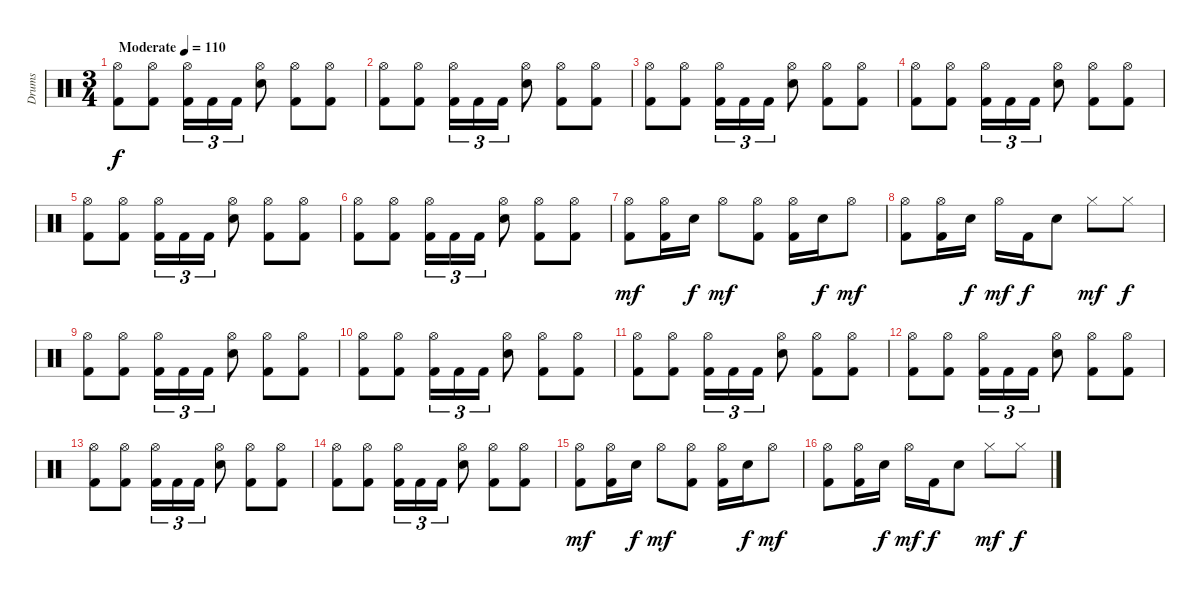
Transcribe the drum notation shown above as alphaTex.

\track ("Drums" "Drums") {instrument percussion}
\staff {score}
\articulation defaults
\ts (3 4)
\tempo (110 "Moderate")
\clef neutral
\ks c
("Hi-Hat (open)" "Kick (hit) 2").8{dy f} ("Hi-Hat (open)" "Kick (hit) 2").8 ("Hi-Hat (open)" "Kick (hit) 2").16{tu (3 2)} "Kick (hit) 2".16{tu (3 2)} "Kick (hit) 2".16{tu (3 2)} ("Hi-Hat (open)" "Snare (hit) 2").8 ("Hi-Hat (open)" "Kick (hit) 2").8 ("Hi-Hat (open)" "Kick (hit) 2").8 |
("Hi-Hat (open)" "Kick (hit) 2").8 ("Hi-Hat (open)" "Kick (hit) 2").8 ("Hi-Hat (open)" "Kick (hit) 2").16{tu (3 2)} "Kick (hit) 2".16{tu (3 2)} "Kick (hit) 2".16{tu (3 2)} ("Hi-Hat (open)" "Snare (hit) 2").8 ("Hi-Hat (open)" "Kick (hit) 2").8 ("Hi-Hat (open)" "Kick (hit) 2").8 |
("Hi-Hat (open)" "Kick (hit) 2").8 ("Hi-Hat (open)" "Kick (hit) 2").8 ("Hi-Hat (open)" "Kick (hit) 2").16{tu (3 2)} "Kick (hit) 2".16{tu (3 2)} "Kick (hit) 2".16{tu (3 2)} ("Hi-Hat (open)" "Snare (hit) 2").8 ("Hi-Hat (open)" "Kick (hit) 2").8 ("Hi-Hat (open)" "Kick (hit) 2").8 |
("Hi-Hat (open)" "Kick (hit) 2").8 ("Hi-Hat (open)" "Kick (hit) 2").8 ("Hi-Hat (open)" "Kick (hit) 2").16{tu (3 2)} "Kick (hit) 2".16{tu (3 2)} "Kick (hit) 2".16{tu (3 2)} ("Hi-Hat (open)" "Snare (hit) 2").8 ("Hi-Hat (open)" "Kick (hit) 2").8 ("Hi-Hat (open)" "Kick (hit) 2").8 |
("Hi-Hat (open)" "Kick (hit) 2").8 ("Hi-Hat (open)" "Kick (hit) 2").8 ("Hi-Hat (open)" "Kick (hit) 2").16{tu (3 2)} "Kick (hit) 2".16{tu (3 2)} "Kick (hit) 2".16{tu (3 2)} ("Hi-Hat (open)" "Snare (hit) 2").8 ("Hi-Hat (open)" "Kick (hit) 2").8 ("Hi-Hat (open)" "Kick (hit) 2").8 |
("Hi-Hat (open)" "Kick (hit) 2").8 ("Hi-Hat (open)" "Kick (hit) 2").8 ("Hi-Hat (open)" "Kick (hit) 2").16{tu (3 2)} "Kick (hit) 2".16{tu (3 2)} "Kick (hit) 2".16{tu (3 2)} ("Hi-Hat (open)" "Snare (hit) 2").8 ("Hi-Hat (open)" "Kick (hit) 2").8 ("Hi-Hat (open)" "Kick (hit) 2").8 |
("Hi-Hat (open)" "Kick (hit) 2").8{dy mf} ("Hi-Hat (open)" "Kick (hit) 2").16 "Snare (hit) 2".16{dy f} "Hi-Hat (open)".8{dy mf} ("Hi-Hat (open)" "Kick (hit) 2").8 ("Hi-Hat (open)" "Kick (hit) 2").16 "Snare (hit) 2".16{dy f} "Hi-Hat (open)".8{dy mf} |
("Hi-Hat (open)" "Kick (hit) 2").8 ("Hi-Hat (open)" "Kick (hit) 2").16 "Snare (hit) 2".16{dy f} "Hi-Hat (open)".16{dy mf} "Kick (hit) 2".16{dy f} "Snare (hit) 2".8 "Hi-Hat (closed)".8{dy mf} "Hi-Hat (closed)".8{dy f} |
("Hi-Hat (open)" "Kick (hit) 2").8 ("Hi-Hat (open)" "Kick (hit) 2").8 ("Hi-Hat (open)" "Kick (hit) 2").16{tu (3 2)} "Kick (hit) 2".16{tu (3 2)} "Kick (hit) 2".16{tu (3 2)} ("Hi-Hat (open)" "Snare (hit) 2").8 ("Hi-Hat (open)" "Kick (hit) 2").8 ("Hi-Hat (open)" "Kick (hit) 2").8 |
("Hi-Hat (open)" "Kick (hit) 2").8 ("Hi-Hat (open)" "Kick (hit) 2").8 ("Hi-Hat (open)" "Kick (hit) 2").16{tu (3 2)} "Kick (hit) 2".16{tu (3 2)} "Kick (hit) 2".16{tu (3 2)} ("Hi-Hat (open)" "Snare (hit) 2").8 ("Hi-Hat (open)" "Kick (hit) 2").8 ("Hi-Hat (open)" "Kick (hit) 2").8 |
("Hi-Hat (open)" "Kick (hit) 2").8 ("Hi-Hat (open)" "Kick (hit) 2").8 ("Hi-Hat (open)" "Kick (hit) 2").16{tu (3 2)} "Kick (hit) 2".16{tu (3 2)} "Kick (hit) 2".16{tu (3 2)} ("Hi-Hat (open)" "Snare (hit) 2").8 ("Hi-Hat (open)" "Kick (hit) 2").8 ("Hi-Hat (open)" "Kick (hit) 2").8 |
("Hi-Hat (open)" "Kick (hit) 2").8 ("Hi-Hat (open)" "Kick (hit) 2").8 ("Hi-Hat (open)" "Kick (hit) 2").16{tu (3 2)} "Kick (hit) 2".16{tu (3 2)} "Kick (hit) 2".16{tu (3 2)} ("Hi-Hat (open)" "Snare (hit) 2").8 ("Hi-Hat (open)" "Kick (hit) 2").8 ("Hi-Hat (open)" "Kick (hit) 2").8 |
("Hi-Hat (open)" "Kick (hit) 2").8 ("Hi-Hat (open)" "Kick (hit) 2").8 ("Hi-Hat (open)" "Kick (hit) 2").16{tu (3 2)} "Kick (hit) 2".16{tu (3 2)} "Kick (hit) 2".16{tu (3 2)} ("Hi-Hat (open)" "Snare (hit) 2").8 ("Hi-Hat (open)" "Kick (hit) 2").8 ("Hi-Hat (open)" "Kick (hit) 2").8 |
("Hi-Hat (open)" "Kick (hit) 2").8 ("Hi-Hat (open)" "Kick (hit) 2").8 ("Hi-Hat (open)" "Kick (hit) 2").16{tu (3 2)} "Kick (hit) 2".16{tu (3 2)} "Kick (hit) 2".16{tu (3 2)} ("Hi-Hat (open)" "Snare (hit) 2").8 ("Hi-Hat (open)" "Kick (hit) 2").8 ("Hi-Hat (open)" "Kick (hit) 2").8 |
("Hi-Hat (open)" "Kick (hit) 2").8{dy mf} ("Hi-Hat (open)" "Kick (hit) 2").16 "Snare (hit) 2".16{dy f} "Hi-Hat (open)".8{dy mf} ("Hi-Hat (open)" "Kick (hit) 2").8 ("Hi-Hat (open)" "Kick (hit) 2").16 "Snare (hit) 2".16{dy f} "Hi-Hat (open)".8{dy mf} |
("Hi-Hat (open)" "Kick (hit) 2").8 ("Hi-Hat (open)" "Kick (hit) 2").16 "Snare (hit) 2".16{dy f} "Hi-Hat (open)".16{dy mf} "Kick (hit) 2".16{dy f} "Snare (hit) 2".8 "Hi-Hat (closed)".8{dy mf} "Hi-Hat (closed)".8{dy f}
